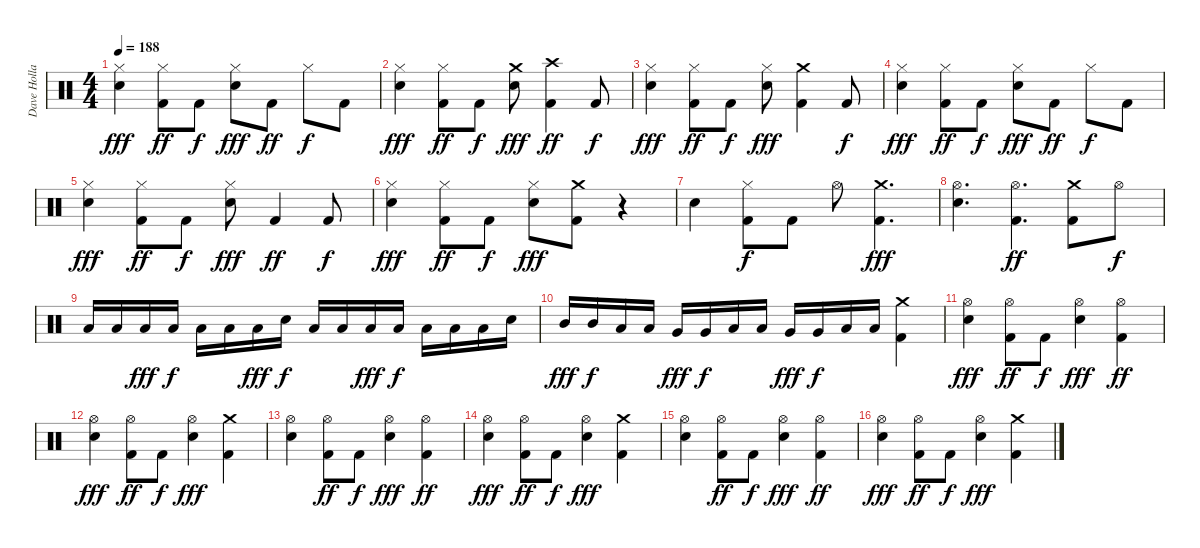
\track ("Dave Holland" "Dave Holla") {instrument percussion}
\staff {score}
\articulation defaults
\ts (4 4)
\tempo 188
\clef neutral
\ks c
("Snare (hit) 2" "Hi-Hat (closed)").4{dy fff} ("Kick (hit) 2" "Hi-Hat (closed)").8{dy ff} "Kick (hit) 2".8{dy f} ("Snare (hit) 2" "Hi-Hat (closed)").8{dy fff} "Kick (hit) 2".8{dy ff} "Hi-Hat (closed)".8{dy f} "Kick (hit) 2".8 |
("Snare (hit) 2" "Hi-Hat (closed)").4{dy fff} ("Kick (hit) 2" "Hi-Hat (closed)").8{dy ff} "Kick (hit) 2".8{dy f} ("Crash medium (hit)" "Snare (hit) 2").8{dy fff} ("Crash high (hit)" "Kick (hit) 2").4{dy ff} "Kick (hit) 2".8{dy f} |
("Snare (hit) 2" "Hi-Hat (closed)").4{dy fff} ("Kick (hit) 2" "Hi-Hat (closed)").8{dy ff} "Kick (hit) 2".8{dy f} ("Snare (hit) 2" "Hi-Hat (closed)").8{dy fff} ("Kick (hit) 2" "Crash medium (hit)").4 "Kick (hit) 2".8{dy f} |
("Snare (hit) 2" "Hi-Hat (closed)").4{dy fff} ("Kick (hit) 2" "Hi-Hat (closed)").8{dy ff} "Kick (hit) 2".8{dy f} ("Snare (hit) 2" "Hi-Hat (closed)").8{dy fff} "Kick (hit) 2".8{dy ff} "Hi-Hat (closed)".8{dy f} "Kick (hit) 2".8 |
("Snare (hit) 2" "Hi-Hat (closed)").4{dy fff} ("Kick (hit) 2" "Hi-Hat (closed)").8{dy ff} "Kick (hit) 2".8{dy f} ("Snare (hit) 2" "Hi-Hat (closed)").8{dy fff} "Kick (hit) 2".4{dy ff} "Kick (hit) 2".8{dy f} |
("Snare (hit) 2" "Hi-Hat (closed)").4{dy fff} ("Kick (hit) 2" "Hi-Hat (closed)").8{dy ff} "Kick (hit) 2".8{dy f} ("Snare (hit) 2" "Hi-Hat (closed)").8{dy fff} ("Kick (hit) 2" "Crash medium (hit)").8 r.4 |
"Snare (hit) 2".4 ("Kick (hit) 2" "Hi-Hat (closed)").8{dy f} "Kick (hit) 2".8 "Hi-Hat (open)".8 ("Kick (hit) 2" "Crash medium (hit)").4{d dy fff} |
("Snare (hit) 2" "Hi-Hat (open)").4{d} ("Kick (hit) 2" "Hi-Hat (open)").4{d dy ff} ("Kick (hit) 2" "Crash medium (hit)").8 "Hi-Hat (open)".8{dy f} |
"Low Tom (hit)".16 "Low Tom (hit)".16 "Low Tom (hit)".16{dy fff} "Low Tom (hit)".16{dy f} "Low Tom (hit)".16 "Low Tom (hit)".16 "Low Tom (hit)".16{dy fff} "Snare (hit) 2".16{dy f} "Low Tom (hit)".16 "Low Tom (hit)".16 "Low Tom (hit)".16{dy fff} "Low Tom (hit)".16{dy f} "Low Tom (hit)".16 "Low Tom (hit)".16 "Low Tom (hit)".16 "Snare (hit) 2".16 |
"Mid Tom (hit)".16{dy fff} "Mid Tom (hit)".16{dy f} "Low Tom (hit)".16 "Low Tom (hit)".16 "Very Low Tom (hit)".16{dy fff} "Very Low Tom (hit)".16{dy f} "Low Floor Tom (hit)".16 "Low Floor Tom (hit)".16 "Very Low Tom (hit)".16{dy fff} "Very Low Tom (hit)".16{dy f} "Low Floor Tom (hit)".16 "Low Floor Tom (hit)".16 ("Kick (hit) 2" "Crash medium (hit)").4 |
("Snare (hit) 2" "Hi-Hat (open)").4{dy fff} ("Kick (hit) 2" "Hi-Hat (open)").8{dy ff} "Kick (hit) 2".8{dy f} ("Snare (hit) 2" "Hi-Hat (open)").4{dy fff} ("Kick (hit) 2" "Hi-Hat (open)").4{dy ff} |
("Snare (hit) 2" "Hi-Hat (open)").4{dy fff} ("Kick (hit) 2" "Hi-Hat (open)").8{dy ff} "Kick (hit) 2".8{dy f} ("Snare (hit) 2" "Hi-Hat (open)").4{dy fff} ("Kick (hit) 2" "Crash medium (hit)").4 |
("Snare (hit) 2" "Hi-Hat (open)").4 ("Kick (hit) 2" "Hi-Hat (open)").8{dy ff} "Kick (hit) 2".8{dy f} ("Snare (hit) 2" "Hi-Hat (open)").4{dy fff} ("Kick (hit) 2" "Hi-Hat (open)").4{dy ff} |
("Snare (hit) 2" "Hi-Hat (open)").4{dy fff} ("Kick (hit) 2" "Hi-Hat (open)").8{dy ff} "Kick (hit) 2".8{dy f} ("Snare (hit) 2" "Hi-Hat (open)").4{dy fff} ("Kick (hit) 2" "Crash medium (hit)").4 |
("Snare (hit) 2" "Hi-Hat (open)").4 ("Kick (hit) 2" "Hi-Hat (open)").8{dy ff} "Kick (hit) 2".8{dy f} ("Snare (hit) 2" "Hi-Hat (open)").4{dy fff} ("Kick (hit) 2" "Hi-Hat (open)").4{dy ff} |
("Snare (hit) 2" "Hi-Hat (open)").4{dy fff} ("Kick (hit) 2" "Hi-Hat (open)").8{dy ff} "Kick (hit) 2".8{dy f} ("Snare (hit) 2" "Hi-Hat (open)").4{dy fff} ("Kick (hit) 2" "Crash medium (hit)").4
